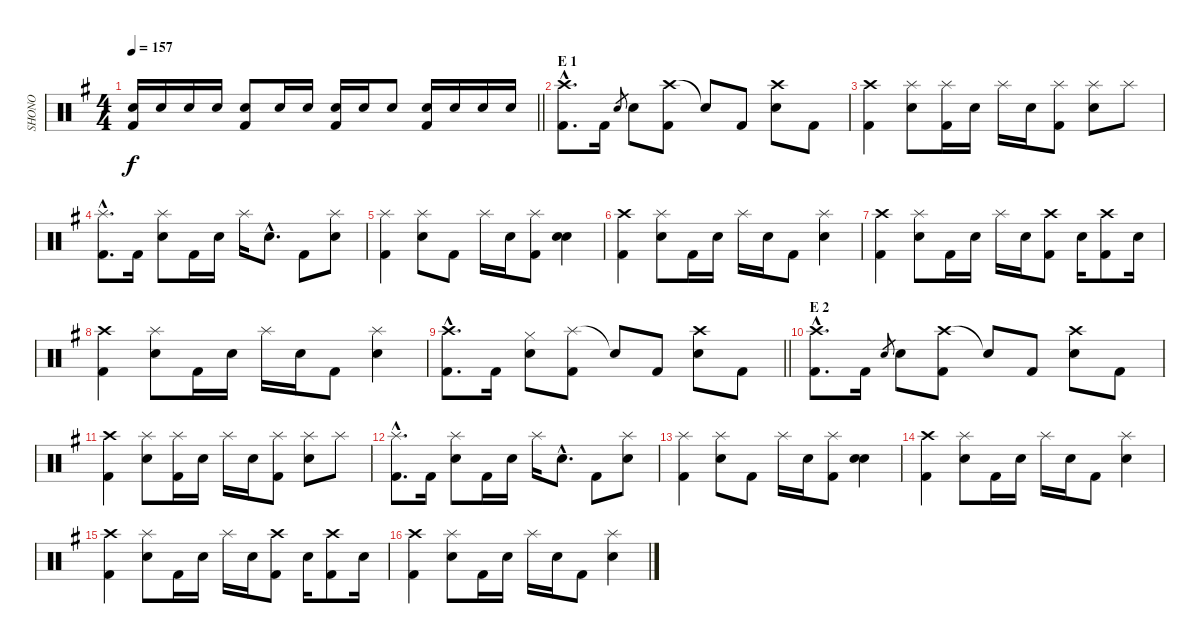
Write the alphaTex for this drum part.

\track ("SHONO" "SHONO") {instrument percussion}
\staff {score}
\articulation defaults
\ts (4 4)
\tempo 157
\clef neutral
\barLineRight lightlight
\ks g
("Snare (hit) 2" "Kick (hit) 2").16{dy f} "Snare (hit) 2".16 "Snare (hit) 2".16 "Snare (hit) 2".16 ("Snare (hit) 2" "Kick (hit) 2").8 "Snare (hit) 2".16 "Snare (hit) 2".16 ("Snare (hit) 2" "Kick (hit) 2").16 "Snare (hit) 2".16 "Snare (hit) 2".8 ("Snare (hit) 2" "Kick (hit) 2").16 "Snare (hit) 2".16 "Snare (hit) 2".16 "Snare (hit) 2".16 |
\section ("" "E 1")
("Crash high (hit)"{hac} "Kick (hit) 2"{hac}).8{d} "Kick (hit) 2".16 "Snare (hit) 2".8{gr} "Snare (hit) 2".8 ("Crash high (hit)" "Kick (hit) 2").8 "Snare (hit)"{t}.8 "Kick (hit) 2".8 ("Crash high (hit)" "Snare (hit) 2").8 "Kick (hit) 2".8 |
("Crash high (hit)" "Kick (hit) 2").4 ("Splash (hit)" "Snare (hit) 2").8 ("Splash (hit)" "Kick (hit) 2").16 "Snare (hit) 2".16 "Splash (hit)".16 "Snare (hit) 2".16 ("Splash (hit)" "Kick (hit) 2").8 ("Splash (hit)" "Snare (hit) 2").8 "Splash (hit)".8 |
("Splash (hit)"{hac} "Kick (hit) 2"{hac}).8{d} "Kick (hit) 2".16 ("Splash (hit)" "Snare (hit) 2").8 "Kick (hit) 2".16 "Snare (hit) 2".16 "Splash (hit)".16 "Snare (hit) 2"{hac}.8{d} "Kick (hit) 2".8 ("Splash (hit)" "Snare (hit) 2").8 |
("Splash (hit)" "Kick (hit) 2").4 ("Splash (hit)" "Snare (hit) 2").8 "Kick (hit) 2".8 "Splash (hit)".16 "Snare (hit) 2".16 ("Splash (hit)" "Kick (hit) 2").8 ("Hand Clap (hit)" "Snare (hit) 2").4 |
("Crash high (hit)" "Kick (hit) 2").4 ("Splash (hit)" "Snare (hit) 2").8 "Kick (hit) 2".16 "Snare (hit) 2".16 "Splash (hit)".16 "Snare (hit) 2".16 "Kick (hit) 2".8 ("Splash (hit)" "Snare (hit) 2").4 |
("Crash high (hit)" "Kick (hit) 2").4 ("Splash (hit)" "Snare (hit) 2").8 "Kick (hit) 2".16 "Snare (hit) 2".16 "Splash (hit)".16 "Snare (hit) 2".16 ("Crash high (hit)" "Kick (hit) 2").8 "Snare (hit) 2".16 ("Crash high (hit)" "Kick (hit) 2").8 "Snare (hit) 2".16 |
("Crash high (hit)" "Kick (hit) 2").4 ("Splash (hit)" "Snare (hit) 2").8 "Kick (hit) 2".16 "Snare (hit) 2".16 "Splash (hit)".16 "Snare (hit) 2".16 "Kick (hit) 2".8 ("Splash (hit)" "Snare (hit) 2").4 |
\barLineRight lightlight
("Crash high (hit)"{hac} "Kick (hit) 2"{hac}).8{d} "Kick (hit) 2".16 ("Hi-Hat (closed)" "Snare (hit) 2").8 ("Splash (hit)" "Kick (hit) 2").8 "Snare (hit)"{t}.8 "Kick (hit) 2".8 ("Crash high (hit)" "Snare (hit) 2").8 "Kick (hit) 2".8 |
\section ("" "E 2")
("Crash high (hit)"{hac} "Kick (hit) 2"{hac}).8{d} "Kick (hit) 2".16 "Snare (hit) 2".8{gr} "Snare (hit) 2".8 ("Crash high (hit)" "Kick (hit) 2").8 "Snare (hit)"{t}.8 "Kick (hit) 2".8 ("Crash high (hit)" "Snare (hit) 2").8 "Kick (hit) 2".8 |
("Crash high (hit)" "Kick (hit) 2").4 ("Splash (hit)" "Snare (hit) 2").8 ("Splash (hit)" "Kick (hit) 2").16 "Snare (hit) 2".16 "Splash (hit)".16 "Snare (hit) 2".16 ("Splash (hit)" "Kick (hit) 2").8 ("Splash (hit)" "Snare (hit) 2").8 "Splash (hit)".8 |
("Splash (hit)"{hac} "Kick (hit) 2"{hac}).8{d} "Kick (hit) 2".16 ("Splash (hit)" "Snare (hit) 2").8 "Kick (hit) 2".16 "Snare (hit) 2".16 "Splash (hit)".16 "Snare (hit) 2"{hac}.8{d} "Kick (hit) 2".8 ("Splash (hit)" "Snare (hit) 2").8 |
("Splash (hit)" "Kick (hit) 2").4 ("Splash (hit)" "Snare (hit) 2").8 "Kick (hit) 2".8 "Splash (hit)".16 "Snare (hit) 2".16 ("Splash (hit)" "Kick (hit) 2").8 ("Hand Clap (hit)" "Snare (hit) 2").4 |
("Crash high (hit)" "Kick (hit) 2").4 ("Splash (hit)" "Snare (hit) 2").8 "Kick (hit) 2".16 "Snare (hit) 2".16 "Splash (hit)".16 "Snare (hit) 2".16 "Kick (hit) 2".8 ("Splash (hit)" "Snare (hit) 2").4 |
("Crash high (hit)" "Kick (hit) 2").4 ("Splash (hit)" "Snare (hit) 2").8 "Kick (hit) 2".16 "Snare (hit) 2".16 "Splash (hit)".16 "Snare (hit) 2".16 ("Crash high (hit)" "Kick (hit) 2").8 "Snare (hit) 2".16 ("Crash high (hit)" "Kick (hit) 2").8 "Snare (hit) 2".16 |
("Crash high (hit)" "Kick (hit) 2").4 ("Splash (hit)" "Snare (hit) 2").8 "Kick (hit) 2".16 "Snare (hit) 2".16 "Splash (hit)".16 "Snare (hit) 2".16 "Kick (hit) 2".8 ("Splash (hit)" "Snare (hit) 2").4
